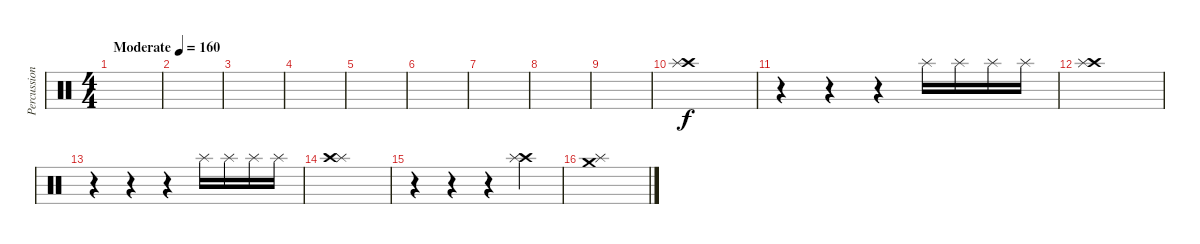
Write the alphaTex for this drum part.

\track ("Percussion" "Percussion") {instrument percussion}
\staff {score}
\articulation defaults
\ts (4 4)
\tempo (160 "Moderate")
\tempo 110
\tempo (160 "Moderate")
\clef neutral
\ks c
|
|
|
|
|
|
|
|
|
("Crash high (hit)" "Splash (hit)").1 |
r.4 r.4 r.4 "Splash (hit)".16 "Splash (hit)".16 "Splash (hit)".16 "Splash (hit)".16 |
("Crash high (hit)" "Splash (hit)").1 |
r.4 r.4 r.4 "Splash (hit)".16 "Splash (hit)".16 "Splash (hit)".16 "Splash (hit)".16 |
("Splash (hit)" "Crash high (hit)").1 |
r.4 r.4 r.4 ("Crash high (hit)" "Splash (hit)").4 |
("Crash medium (hit)" "Splash (hit)").1
